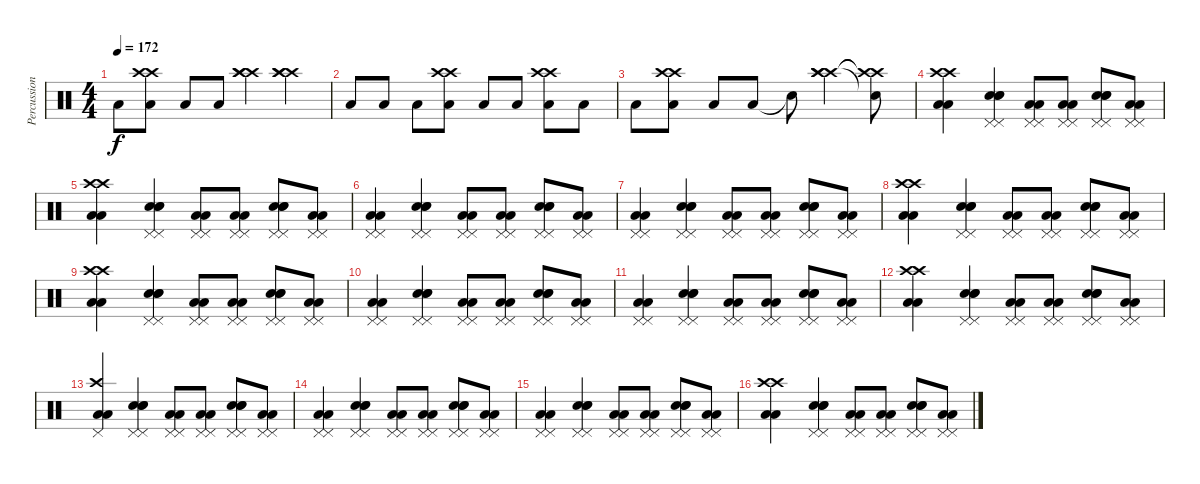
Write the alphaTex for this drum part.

\track ("Percussion" "Percussion") {instrument percussion}
\staff {score}
\articulation defaults
\ts (4 4)
\tempo 172
\clef neutral
\ks c "Low Floor Tom (hit)".8{dy f}
("Crash high (hit)" "Crash high (hit)" "Low Floor Tom (hit)").8 "Low Floor Tom (hit)".8 "Low Floor Tom (hit)".8 ("Crash high (hit)" "Crash high (hit)" "Crash high (hit)").4 ("Crash high (hit)" "Crash high (hit)" "Crash high (hit)").4 |
"Low Floor Tom (hit)".8 "Low Floor Tom (hit)".8 "Low Floor Tom (hit)".8 ("Crash high (hit)" "Crash high (hit)" "Low Floor Tom (hit)").8 "Low Floor Tom (hit)".8 "Low Floor Tom (hit)".8 ("Crash high (hit)" "Crash high (hit)" "Low Floor Tom (hit)").8 "Low Floor Tom (hit)".8 |
"Low Floor Tom (hit)".8 ("Crash high (hit)" "Crash high (hit)" "Low Floor Tom (hit)").8 "Low Floor Tom (hit)".8 "Low Floor Tom (hit)".8 "Snare (hit)"{t}.8 ("Crash high (hit)" "Crash high (hit)" "Crash high (hit)").4 ("Crash high (hit)"{t} "Crash high (hit)"{t} "Snare (hit)"{t}).8 |
("Crash high (hit)" "Crash high (hit)" "Low Floor Tom (hit)" "Low Floor Tom (hit)").4 ("Pedal Hi-Hat (hit)" "Pedal Hi-Hat (hit)" "Electric Snare (hit)" "Electric Snare (hit)" "Electric Snare (hit)").4 ("Pedal Hi-Hat (hit)" "Pedal Hi-Hat (hit)" "Low Floor Tom (hit)" "Low Floor Tom (hit)").8 ("Pedal Hi-Hat (hit)" "Pedal Hi-Hat (hit)" "Low Floor Tom (hit)" "Low Floor Tom (hit)").8 ("Pedal Hi-Hat (hit)" "Pedal Hi-Hat (hit)" "Electric Snare (hit)" "Electric Snare (hit)" "Electric Snare (hit)").8 ("Pedal Hi-Hat (hit)" "Pedal Hi-Hat (hit)" "Low Floor Tom (hit)" "Low Floor Tom (hit)").8 |
("Crash high (hit)" "Crash high (hit)" "Low Floor Tom (hit)" "Low Floor Tom (hit)").4 ("Pedal Hi-Hat (hit)" "Pedal Hi-Hat (hit)" "Electric Snare (hit)" "Electric Snare (hit)" "Electric Snare (hit)").4 ("Pedal Hi-Hat (hit)" "Pedal Hi-Hat (hit)" "Low Floor Tom (hit)" "Low Floor Tom (hit)").8 ("Pedal Hi-Hat (hit)" "Pedal Hi-Hat (hit)" "Low Floor Tom (hit)" "Low Floor Tom (hit)").8 ("Pedal Hi-Hat (hit)" "Pedal Hi-Hat (hit)" "Electric Snare (hit)" "Electric Snare (hit)" "Electric Snare (hit)").8 ("Pedal Hi-Hat (hit)" "Pedal Hi-Hat (hit)" "Low Floor Tom (hit)" "Low Floor Tom (hit)").8 |
("Pedal Hi-Hat (hit)" "Pedal Hi-Hat (hit)" "Low Floor Tom (hit)" "Low Floor Tom (hit)").4 ("Pedal Hi-Hat (hit)" "Pedal Hi-Hat (hit)" "Electric Snare (hit)" "Electric Snare (hit)" "Electric Snare (hit)").4 ("Pedal Hi-Hat (hit)" "Pedal Hi-Hat (hit)" "Low Floor Tom (hit)" "Low Floor Tom (hit)").8 ("Pedal Hi-Hat (hit)" "Pedal Hi-Hat (hit)" "Low Floor Tom (hit)" "Low Floor Tom (hit)").8 ("Pedal Hi-Hat (hit)" "Pedal Hi-Hat (hit)" "Electric Snare (hit)" "Electric Snare (hit)" "Electric Snare (hit)").8 ("Pedal Hi-Hat (hit)" "Pedal Hi-Hat (hit)" "Low Floor Tom (hit)" "Low Floor Tom (hit)").8 |
("Pedal Hi-Hat (hit)" "Pedal Hi-Hat (hit)" "Low Floor Tom (hit)" "Low Floor Tom (hit)").4 ("Pedal Hi-Hat (hit)" "Pedal Hi-Hat (hit)" "Electric Snare (hit)" "Electric Snare (hit)" "Electric Snare (hit)").4 ("Pedal Hi-Hat (hit)" "Pedal Hi-Hat (hit)" "Low Floor Tom (hit)" "Low Floor Tom (hit)").8 ("Pedal Hi-Hat (hit)" "Pedal Hi-Hat (hit)" "Low Floor Tom (hit)" "Low Floor Tom (hit)").8 ("Pedal Hi-Hat (hit)" "Pedal Hi-Hat (hit)" "Electric Snare (hit)" "Electric Snare (hit)" "Electric Snare (hit)").8 ("Pedal Hi-Hat (hit)" "Pedal Hi-Hat (hit)" "Low Floor Tom (hit)" "Low Floor Tom (hit)").8 |
("Crash high (hit)" "Crash high (hit)" "Low Floor Tom (hit)" "Low Floor Tom (hit)").4 ("Pedal Hi-Hat (hit)" "Pedal Hi-Hat (hit)" "Electric Snare (hit)" "Electric Snare (hit)" "Electric Snare (hit)").4 ("Pedal Hi-Hat (hit)" "Pedal Hi-Hat (hit)" "Low Floor Tom (hit)" "Low Floor Tom (hit)").8 ("Pedal Hi-Hat (hit)" "Pedal Hi-Hat (hit)" "Low Floor Tom (hit)" "Low Floor Tom (hit)").8 ("Pedal Hi-Hat (hit)" "Pedal Hi-Hat (hit)" "Electric Snare (hit)" "Electric Snare (hit)" "Electric Snare (hit)").8 ("Pedal Hi-Hat (hit)" "Pedal Hi-Hat (hit)" "Low Floor Tom (hit)" "Low Floor Tom (hit)").8 |
("Crash high (hit)" "Crash high (hit)" "Low Floor Tom (hit)" "Low Floor Tom (hit)").4 ("Pedal Hi-Hat (hit)" "Pedal Hi-Hat (hit)" "Electric Snare (hit)" "Electric Snare (hit)" "Electric Snare (hit)").4 ("Pedal Hi-Hat (hit)" "Pedal Hi-Hat (hit)" "Low Floor Tom (hit)" "Low Floor Tom (hit)").8 ("Pedal Hi-Hat (hit)" "Pedal Hi-Hat (hit)" "Low Floor Tom (hit)" "Low Floor Tom (hit)").8 ("Pedal Hi-Hat (hit)" "Pedal Hi-Hat (hit)" "Electric Snare (hit)" "Electric Snare (hit)" "Electric Snare (hit)").8 ("Pedal Hi-Hat (hit)" "Pedal Hi-Hat (hit)" "Low Floor Tom (hit)" "Low Floor Tom (hit)").8 |
("Pedal Hi-Hat (hit)" "Pedal Hi-Hat (hit)" "Low Floor Tom (hit)" "Low Floor Tom (hit)").4 ("Pedal Hi-Hat (hit)" "Pedal Hi-Hat (hit)" "Electric Snare (hit)" "Electric Snare (hit)" "Electric Snare (hit)").4 ("Pedal Hi-Hat (hit)" "Pedal Hi-Hat (hit)" "Low Floor Tom (hit)" "Low Floor Tom (hit)").8 ("Pedal Hi-Hat (hit)" "Pedal Hi-Hat (hit)" "Low Floor Tom (hit)" "Low Floor Tom (hit)").8 ("Pedal Hi-Hat (hit)" "Pedal Hi-Hat (hit)" "Electric Snare (hit)" "Electric Snare (hit)" "Electric Snare (hit)").8 ("Pedal Hi-Hat (hit)" "Pedal Hi-Hat (hit)" "Low Floor Tom (hit)" "Low Floor Tom (hit)").8 |
("Pedal Hi-Hat (hit)" "Pedal Hi-Hat (hit)" "Low Floor Tom (hit)" "Low Floor Tom (hit)").4 ("Pedal Hi-Hat (hit)" "Pedal Hi-Hat (hit)" "Electric Snare (hit)" "Electric Snare (hit)" "Electric Snare (hit)").4 ("Pedal Hi-Hat (hit)" "Pedal Hi-Hat (hit)" "Low Floor Tom (hit)" "Low Floor Tom (hit)").8 ("Pedal Hi-Hat (hit)" "Pedal Hi-Hat (hit)" "Low Floor Tom (hit)" "Low Floor Tom (hit)").8 ("Pedal Hi-Hat (hit)" "Pedal Hi-Hat (hit)" "Electric Snare (hit)" "Electric Snare (hit)" "Electric Snare (hit)").8 ("Pedal Hi-Hat (hit)" "Pedal Hi-Hat (hit)" "Low Floor Tom (hit)" "Low Floor Tom (hit)").8 |
("Crash high (hit)" "Crash high (hit)" "Low Floor Tom (hit)" "Low Floor Tom (hit)").4 ("Pedal Hi-Hat (hit)" "Pedal Hi-Hat (hit)" "Electric Snare (hit)" "Electric Snare (hit)" "Electric Snare (hit)").4 ("Pedal Hi-Hat (hit)" "Pedal Hi-Hat (hit)" "Low Floor Tom (hit)" "Low Floor Tom (hit)").8 ("Pedal Hi-Hat (hit)" "Pedal Hi-Hat (hit)" "Low Floor Tom (hit)" "Low Floor Tom (hit)").8 ("Pedal Hi-Hat (hit)" "Pedal Hi-Hat (hit)" "Electric Snare (hit)" "Electric Snare (hit)" "Electric Snare (hit)").8 ("Pedal Hi-Hat (hit)" "Pedal Hi-Hat (hit)" "Low Floor Tom (hit)" "Low Floor Tom (hit)").8 |
("Crash high (hit)" "Pedal Hi-Hat (hit)" "Low Floor Tom (hit)" "Low Floor Tom (hit)").4 ("Pedal Hi-Hat (hit)" "Pedal Hi-Hat (hit)" "Electric Snare (hit)" "Electric Snare (hit)" "Electric Snare (hit)").4 ("Pedal Hi-Hat (hit)" "Pedal Hi-Hat (hit)" "Low Floor Tom (hit)" "Low Floor Tom (hit)").8 ("Pedal Hi-Hat (hit)" "Pedal Hi-Hat (hit)" "Low Floor Tom (hit)" "Low Floor Tom (hit)").8 ("Pedal Hi-Hat (hit)" "Pedal Hi-Hat (hit)" "Electric Snare (hit)" "Electric Snare (hit)" "Electric Snare (hit)").8 ("Pedal Hi-Hat (hit)" "Pedal Hi-Hat (hit)" "Low Floor Tom (hit)" "Low Floor Tom (hit)").8 |
("Pedal Hi-Hat (hit)" "Pedal Hi-Hat (hit)" "Low Floor Tom (hit)" "Low Floor Tom (hit)").4 ("Pedal Hi-Hat (hit)" "Pedal Hi-Hat (hit)" "Electric Snare (hit)" "Electric Snare (hit)" "Electric Snare (hit)").4 ("Pedal Hi-Hat (hit)" "Pedal Hi-Hat (hit)" "Low Floor Tom (hit)" "Low Floor Tom (hit)").8 ("Pedal Hi-Hat (hit)" "Pedal Hi-Hat (hit)" "Low Floor Tom (hit)" "Low Floor Tom (hit)").8 ("Pedal Hi-Hat (hit)" "Pedal Hi-Hat (hit)" "Electric Snare (hit)" "Electric Snare (hit)" "Electric Snare (hit)").8 ("Pedal Hi-Hat (hit)" "Pedal Hi-Hat (hit)" "Low Floor Tom (hit)" "Low Floor Tom (hit)").8 |
("Pedal Hi-Hat (hit)" "Pedal Hi-Hat (hit)" "Low Floor Tom (hit)" "Low Floor Tom (hit)").4 ("Pedal Hi-Hat (hit)" "Pedal Hi-Hat (hit)" "Electric Snare (hit)" "Electric Snare (hit)" "Electric Snare (hit)").4 ("Pedal Hi-Hat (hit)" "Pedal Hi-Hat (hit)" "Low Floor Tom (hit)" "Low Floor Tom (hit)").8 ("Pedal Hi-Hat (hit)" "Pedal Hi-Hat (hit)" "Low Floor Tom (hit)" "Low Floor Tom (hit)").8 ("Pedal Hi-Hat (hit)" "Pedal Hi-Hat (hit)" "Electric Snare (hit)" "Electric Snare (hit)" "Electric Snare (hit)").8 ("Pedal Hi-Hat (hit)" "Pedal Hi-Hat (hit)" "Low Floor Tom (hit)" "Low Floor Tom (hit)").8 |
("Crash high (hit)" "Crash high (hit)" "Low Floor Tom (hit)" "Low Floor Tom (hit)").4 ("Pedal Hi-Hat (hit)" "Pedal Hi-Hat (hit)" "Electric Snare (hit)" "Electric Snare (hit)" "Electric Snare (hit)").4 ("Pedal Hi-Hat (hit)" "Pedal Hi-Hat (hit)" "Low Floor Tom (hit)" "Low Floor Tom (hit)").8 ("Pedal Hi-Hat (hit)" "Pedal Hi-Hat (hit)" "Low Floor Tom (hit)" "Low Floor Tom (hit)").8 ("Pedal Hi-Hat (hit)" "Pedal Hi-Hat (hit)" "Electric Snare (hit)" "Electric Snare (hit)" "Electric Snare (hit)").8 ("Pedal Hi-Hat (hit)" "Pedal Hi-Hat (hit)" "Low Floor Tom (hit)" "Low Floor Tom (hit)").8
